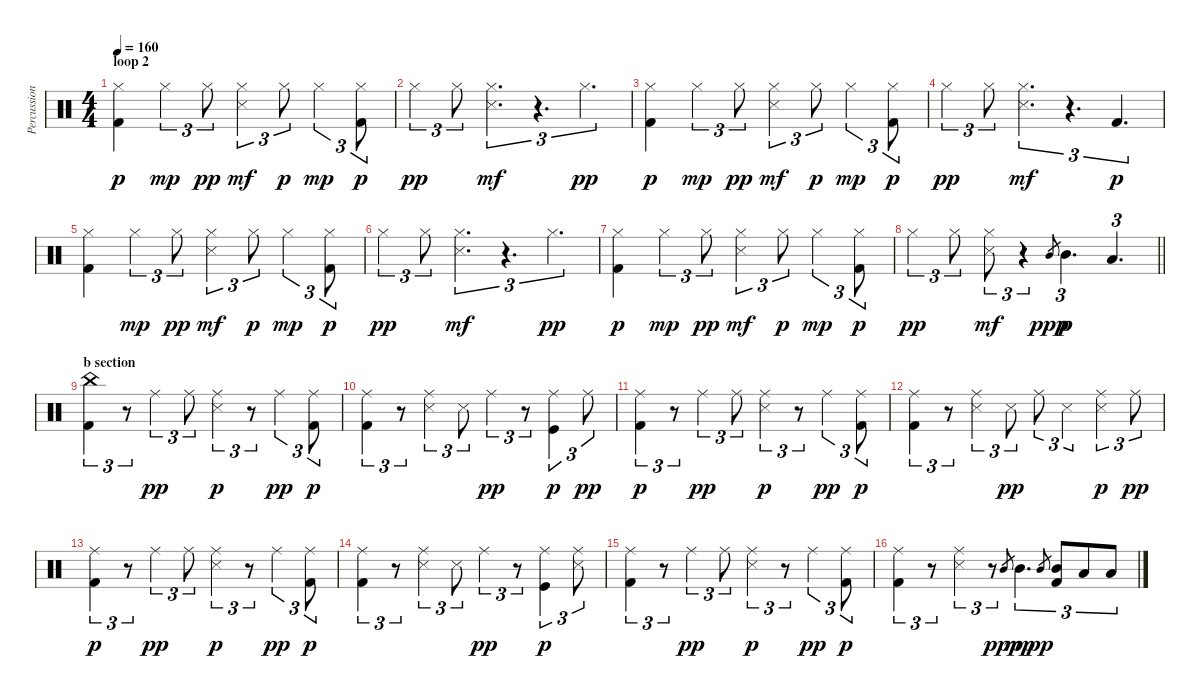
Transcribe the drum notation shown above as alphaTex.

\track ("Percussion" "Percussion") {instrument percussion}
\staff {score}
\articulation defaults
\ts (4 4)
\section ("" "loop 2")
\tempo 160
\clef neutral
\ks c
("Hi-Hat (closed)" "Kick (hit) 2").4{dy p} "Hi-Hat (closed)".4{tu (3 2) dy mp} "Hi-Hat (closed)".8{tu (3 2) dy pp} ("Hi-Hat (closed)" "Snare (side stick) 3").4{tu (3 2) dy mf} "Hi-Hat (closed)".8{tu (3 2) dy p} "Hi-Hat (closed)".4{tu (3 2) dy mp} ("Hi-Hat (closed)" "Kick (hit) 2").8{tu (3 2) dy p} |
"Hi-Hat (closed)".4{tu (3 2) dy pp} "Hi-Hat (closed)".8{tu (3 2)} ("Hi-Hat (closed)" "Snare (side stick) 3").4{d tu (3 2) dy mf} r.4{d tu (3 2)} "Hi-Hat (closed)".4{d tu (3 2) dy pp} |
("Hi-Hat (closed)" "Kick (hit) 2").4{dy p} "Hi-Hat (closed)".4{tu (3 2) dy mp} "Hi-Hat (closed)".8{tu (3 2) dy pp} ("Hi-Hat (closed)" "Snare (side stick) 3").4{tu (3 2) dy mf} "Hi-Hat (closed)".8{tu (3 2) dy p} "Hi-Hat (closed)".4{tu (3 2) dy mp} ("Hi-Hat (closed)" "Kick (hit) 2").8{tu (3 2) dy p} |
"Hi-Hat (closed)".4{tu (3 2) dy pp} "Hi-Hat (closed)".8{tu (3 2)} ("Hi-Hat (closed)" "Snare (side stick) 3").4{d tu (3 2) dy mf} r.4{d tu (3 2)} "Kick (hit) 2".4{d tu (3 2) dy p} |
("Hi-Hat (closed)" "Kick (hit) 2").4 "Hi-Hat (closed)".4{tu (3 2) dy mp} "Hi-Hat (closed)".8{tu (3 2) dy pp} ("Hi-Hat (closed)" "Snare (side stick) 3").4{tu (3 2) dy mf} "Hi-Hat (closed)".8{tu (3 2) dy p} "Hi-Hat (closed)".4{tu (3 2) dy mp} ("Hi-Hat (closed)" "Kick (hit) 2").8{tu (3 2) dy p} |
"Hi-Hat (closed)".4{tu (3 2) dy pp} "Hi-Hat (closed)".8{tu (3 2)} ("Hi-Hat (closed)" "Snare (side stick) 3").4{d tu (3 2) dy mf} r.4{d tu (3 2)} "Hi-Hat (closed)".4{d tu (3 2) dy pp} |
("Hi-Hat (closed)" "Kick (hit) 2").4{dy p} "Hi-Hat (closed)".4{tu (3 2) dy mp} "Hi-Hat (closed)".8{tu (3 2) dy pp} ("Hi-Hat (closed)" "Snare (side stick) 3").4{tu (3 2) dy mf} "Hi-Hat (closed)".8{tu (3 2) dy p} "Hi-Hat (closed)".4{tu (3 2) dy mp} ("Hi-Hat (closed)" "Kick (hit) 2").8{tu (3 2) dy p} |
\barLineRight lightlight "Hi-Hat (closed)".4{tu (3 2) dy pp} "Hi-Hat (closed)".8{tu (3 2)}
("Hi-Hat (closed)" "Snare (side stick) 3").8{tu (3 2) dy mf} r.4{tu (3 2)} "Mid Tom (hit)".8{gr dy ppp} "Mid Tom (hit)".4{d tu (3 2) dy p} "Low Tom (hit)".4{d tu (3 2)} |
\section ("" "b section")
("China (hit)" "Kick (hit) 2").4{tu (3 2)} r.8{tu (3 2)} "Ride (middle)".4{tu (3 2) dy pp} "Ride (middle)".8{tu (3 2)} ("Ride (middle)" "Snare (side stick) 3").4{tu (3 2) dy p} r.8{tu (3 2)} "Ride (middle)".4{tu (3 2) dy pp} ("Ride (middle)" "Kick (hit) 2").8{tu (3 2) dy p} |
("Ride (middle)" "Kick (hit) 2").4{tu (3 2)} r.8{tu (3 2)} ("Ride (middle)" "Snare (side stick) 3").4{tu (3 2)} "Snare (side stick) 3".8{tu (3 2)} "Ride (middle)".4{tu (3 2) dy pp} r.8{tu (3 2)} ("Ride (middle)" "Kick (hit)").4{tu (3 2) dy p} "Ride (middle)".8{tu (3 2) dy pp} |
("Ride (middle)" "Kick (hit) 2").4{tu (3 2) dy p} r.8{tu (3 2)} "Ride (middle)".4{tu (3 2) dy pp} "Ride (middle)".8{tu (3 2)} ("Ride (middle)" "Snare (side stick) 3").4{tu (3 2) dy p} r.8{tu (3 2)} "Ride (middle)".4{tu (3 2) dy pp} ("Ride (middle)" "Kick (hit) 2").8{tu (3 2) dy p} |
("Ride (middle)" "Kick (hit) 2").4{tu (3 2)} r.8{tu (3 2)} ("Ride (middle)" "Snare (side stick) 3").4{tu (3 2)} "Snare (side stick) 3".8{tu (3 2) dy pp} "Ride (middle)".8{tu (3 2)} "Snare (side stick) 3".4{tu (3 2)} ("Ride (middle)" "Snare (side stick) 3").4{tu (3 2) dy p} "Ride (middle)".8{tu (3 2) dy pp} |
("Ride (middle)" "Kick (hit) 2").4{tu (3 2) dy p} r.8{tu (3 2)} "Ride (middle)".4{tu (3 2) dy pp} "Ride (middle)".8{tu (3 2)} ("Ride (middle)" "Snare (side stick) 3").4{tu (3 2) dy p} r.8{tu (3 2)} "Ride (middle)".4{tu (3 2) dy pp} ("Ride (middle)" "Kick (hit) 2").8{tu (3 2) dy p} |
("Ride (middle)" "Kick (hit) 2").4{tu (3 2)} r.8{tu (3 2)} ("Ride (middle)" "Snare (side stick) 3").4{tu (3 2)} "Snare (side stick) 3".8{tu (3 2)} "Ride (middle)".4{tu (3 2) dy pp} r.8{tu (3 2)} ("Ride (middle)" "Kick (hit)").4{tu (3 2) dy p} ("Ride (middle)" "Snare (side stick) 3").8{tu (3 2)} |
("Ride (middle)" "Kick (hit) 2").4{tu (3 2)} r.8{tu (3 2)} "Ride (middle)".4{tu (3 2) dy pp} "Ride (middle)".8{tu (3 2)} ("Ride (middle)" "Snare (side stick) 3").4{tu (3 2) dy p} r.8{tu (3 2)} "Ride (middle)".4{tu (3 2) dy pp} ("Ride (middle)" "Kick (hit) 2").8{tu (3 2) dy p} |
("Ride (middle)" "Kick (hit) 2").4{tu (3 2)} r.8{tu (3 2)} ("Ride (middle)" "Snare (side stick) 3").4{tu (3 2)} r.8{tu (3 2)} "Mid Tom (hit)".8{gr dy ppp} "Mid Tom (hit)".4{d tu (3 2) dy mp} "Mid Tom (hit)".8{gr dy pp} ("Mid Tom (hit)" "Kick (hit) 2").8{tu (3 2)} "Low Tom (hit)".8{tu (3 2)} "Low Tom (hit)".8{tu (3 2)}
